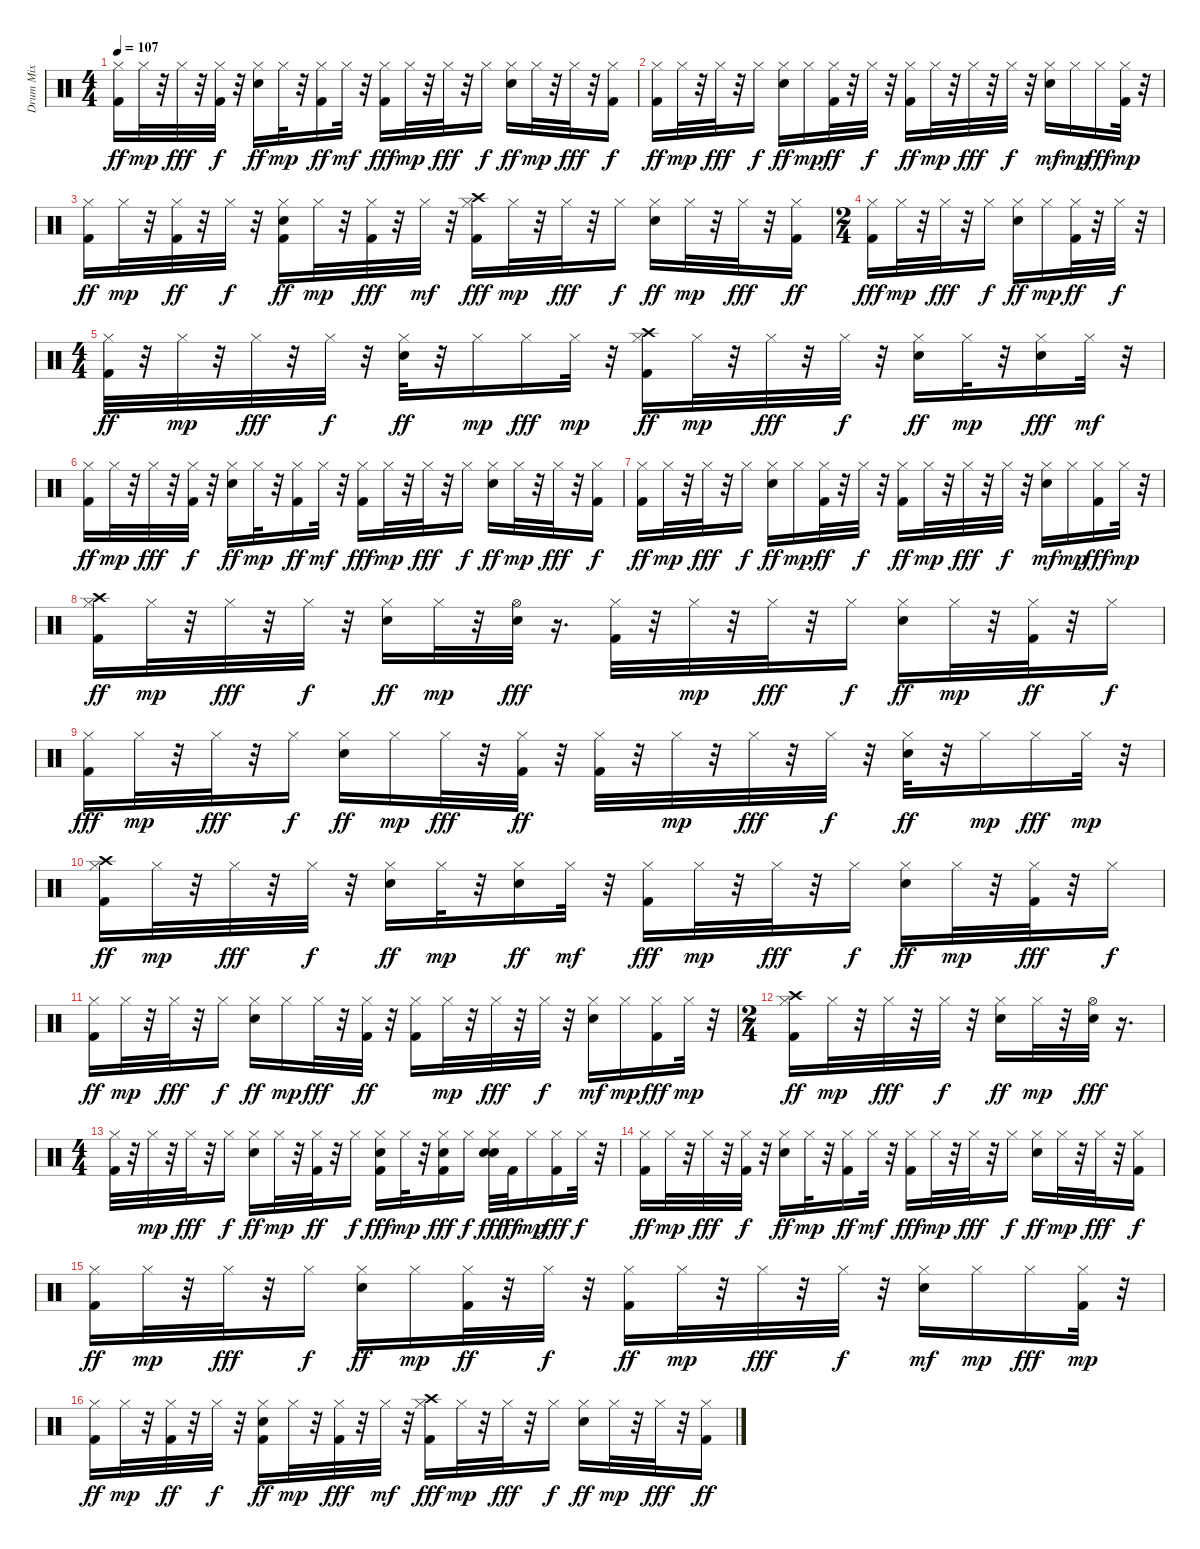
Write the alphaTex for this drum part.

\track ("Drum Mix" "Drum Mix") {instrument percussion}
\staff {score}
\articulation defaults
\ts (4 4)
\tempo 107
\clef neutral
\ks c
("Hi-Hat (closed)" "Kick (hit) 2").16{dy ff} "Hi-Hat (closed)".32{dy mp} r.32 "Hi-Hat (closed)".32{dy fff} r.32 ("Hi-Hat (closed)" "Kick (hit) 2").32{dy f} r.32 ("Hi-Hat (closed)" "Snare (hit) 2").16{dy ff} "Hi-Hat (closed)".32{dy mp} r.32 ("Hi-Hat (closed)" "Kick (hit) 2").16{dy ff} "Hi-Hat (closed)".32{dy mf} r.32 ("Hi-Hat (closed)" "Kick (hit) 2").16{dy fff} "Hi-Hat (closed)".32{dy mp} r.32 "Hi-Hat (closed)".32{dy fff} r.32 "Hi-Hat (closed)".16{dy f} ("Hi-Hat (closed)" "Snare (hit) 2").16{dy ff} "Hi-Hat (closed)".32{dy mp} r.32 "Hi-Hat (closed)".32{dy fff} r.32 ("Hi-Hat (closed)" "Kick (hit) 2").16{dy f} |
("Hi-Hat (closed)" "Kick (hit) 2").16{dy ff} "Hi-Hat (closed)".32{dy mp} r.32 "Hi-Hat (closed)".32{dy fff} r.32 "Hi-Hat (closed)".16{dy f} ("Hi-Hat (closed)" "Snare (hit) 2").16{dy ff} "Hi-Hat (closed)".16{dy mp} ("Hi-Hat (closed)" "Kick (hit) 2").32{dy ff} r.32 "Hi-Hat (closed)".32{dy f} r.32 ("Hi-Hat (closed)" "Kick (hit) 2").16{dy ff} "Hi-Hat (closed)".32{dy mp} r.32 "Hi-Hat (closed)".32{dy fff} r.32 "Hi-Hat (closed)".32{dy f} r.32 ("Hi-Hat (closed)" "Snare (hit) 2").16{dy mf} "Hi-Hat (closed)".16{dy mp} "Hi-Hat (closed)".16{dy fff} ("Hi-Hat (closed)" "Kick (hit) 2").32{dy mp} r.32 |
("Hi-Hat (closed)" "Kick (hit) 2").16{dy ff} "Hi-Hat (closed)".32{dy mp} r.32 ("Hi-Hat (closed)" "Kick (hit) 2").32{dy ff} r.32 "Hi-Hat (closed)".32{dy f} r.32 ("Hi-Hat (closed)" "Snare (hit) 2" "Kick (hit) 2").16{dy ff} "Hi-Hat (closed)".32{dy mp} r.32 ("Hi-Hat (closed)" "Kick (hit) 2").32{dy fff} r.32 "Hi-Hat (closed)".32{dy mf} r.32 ("Hi-Hat (closed)" "Kick (hit) 2" "Crash high (hit)").16{dy fff} "Hi-Hat (closed)".32{dy mp} r.32 "Hi-Hat (closed)".32{dy fff} r.32 "Hi-Hat (closed)".16{dy f} ("Hi-Hat (closed)" "Snare (hit) 2").16{dy ff} "Hi-Hat (closed)".32{dy mp} r.32 "Hi-Hat (closed)".32{dy fff} r.32 ("Hi-Hat (closed)" "Kick (hit) 2").16{dy ff} |
\ts (2 4)
("Hi-Hat (closed)" "Kick (hit) 2").16{dy fff} "Hi-Hat (closed)".32{dy mp} r.32 "Hi-Hat (closed)".32{dy fff} r.32 "Hi-Hat (closed)".16{dy f} ("Hi-Hat (closed)" "Snare (hit) 2").16{dy ff} "Hi-Hat (closed)".16{dy mp} ("Hi-Hat (closed)" "Kick (hit) 2").32{dy ff} r.32 "Hi-Hat (closed)".32{dy f} r.32 |
\ts (4 4)
("Hi-Hat (closed)" "Kick (hit) 2").32{dy ff} r.32 "Hi-Hat (closed)".32{dy mp} r.32 "Hi-Hat (closed)".32{dy fff} r.32 "Hi-Hat (closed)".32{dy f} r.32 ("Hi-Hat (closed)" "Snare (hit) 2").32{dy ff} r.32 "Hi-Hat (closed)".16{dy mp} "Hi-Hat (closed)".16{dy fff} "Hi-Hat (closed)".32{dy mp} r.32 ("Hi-Hat (closed)" "Crash high (hit)" "Kick (hit) 2").16{dy ff} "Hi-Hat (closed)".32{dy mp} r.32 "Hi-Hat (closed)".32{dy fff} r.32 "Hi-Hat (closed)".32{dy f} r.32 ("Hi-Hat (closed)" "Snare (hit) 2").16{dy ff} "Hi-Hat (closed)".32{dy mp} r.32 ("Hi-Hat (closed)" "Snare (hit) 2").16{dy fff} "Hi-Hat (closed)".32{dy mf} r.32 |
("Hi-Hat (closed)" "Kick (hit) 2").16{dy ff} "Hi-Hat (closed)".32{dy mp} r.32 "Hi-Hat (closed)".32{dy fff} r.32 ("Hi-Hat (closed)" "Kick (hit) 2").32{dy f} r.32 ("Hi-Hat (closed)" "Snare (hit) 2").16{dy ff} "Hi-Hat (closed)".32{dy mp} r.32 ("Hi-Hat (closed)" "Kick (hit) 2").16{dy ff} "Hi-Hat (closed)".32{dy mf} r.32 ("Hi-Hat (closed)" "Kick (hit) 2").16{dy fff} "Hi-Hat (closed)".32{dy mp} r.32 "Hi-Hat (closed)".32{dy fff} r.32 "Hi-Hat (closed)".16{dy f} ("Hi-Hat (closed)" "Snare (hit) 2").16{dy ff} "Hi-Hat (closed)".32{dy mp} r.32 "Hi-Hat (closed)".32{dy fff} r.32 ("Hi-Hat (closed)" "Kick (hit) 2").16{dy f} |
("Hi-Hat (closed)" "Kick (hit) 2").16{dy ff} "Hi-Hat (closed)".32{dy mp} r.32 "Hi-Hat (closed)".32{dy fff} r.32 "Hi-Hat (closed)".16{dy f} ("Hi-Hat (closed)" "Snare (hit) 2").16{dy ff} "Hi-Hat (closed)".16{dy mp} ("Hi-Hat (closed)" "Kick (hit) 2").32{dy ff} r.32 "Hi-Hat (closed)".32{dy f} r.32 ("Hi-Hat (closed)" "Kick (hit) 2").16{dy ff} "Hi-Hat (closed)".32{dy mp} r.32 "Hi-Hat (closed)".32{dy fff} r.32 "Hi-Hat (closed)".32{dy f} r.32 ("Hi-Hat (closed)" "Snare (hit) 2").16{dy mf} "Hi-Hat (closed)".16{dy mp} ("Hi-Hat (closed)" "Kick (hit) 2").16{dy fff} "Hi-Hat (closed)".32{dy mp} r.32 |
("Hi-Hat (closed)" "Crash high (hit)" "Kick (hit) 2").16{dy ff} "Hi-Hat (closed)".32{dy mp} r.32 "Hi-Hat (closed)".32{dy fff} r.32 "Hi-Hat (closed)".32{dy f} r.32 ("Hi-Hat (closed)" "Snare (hit) 2").16{dy ff} "Hi-Hat (closed)".32{dy mp} r.32 ("Hi-Hat (open)" "Snare (hit) 2").32{dy fff} r.16{d} ("Hi-Hat (closed)" "Kick (hit) 2").32 r.32 "Hi-Hat (closed)".32{dy mp} r.32 "Hi-Hat (closed)".32{dy fff} r.32 "Hi-Hat (closed)".16{dy f} ("Hi-Hat (closed)" "Snare (hit) 2").16{dy ff} "Hi-Hat (closed)".32{dy mp} r.32 ("Hi-Hat (closed)" "Kick (hit) 2").32{dy ff} r.32 "Hi-Hat (closed)".16{dy f} |
("Hi-Hat (closed)" "Kick (hit) 2").16{dy fff} "Hi-Hat (closed)".32{dy mp} r.32 "Hi-Hat (closed)".32{dy fff} r.32 "Hi-Hat (closed)".16{dy f} ("Hi-Hat (closed)" "Snare (hit) 2").16{dy ff} "Hi-Hat (closed)".16{dy mp} "Hi-Hat (closed)".32{dy fff} r.32 ("Hi-Hat (closed)" "Kick (hit) 2").32{dy ff} r.32 ("Hi-Hat (closed)" "Kick (hit) 2").32 r.32 "Hi-Hat (closed)".32{dy mp} r.32 "Hi-Hat (closed)".32{dy fff} r.32 "Hi-Hat (closed)".32{dy f} r.32 ("Hi-Hat (closed)" "Snare (hit) 2").32{dy ff} r.32 "Hi-Hat (closed)".16{dy mp} "Hi-Hat (closed)".16{dy fff} "Hi-Hat (closed)".32{dy mp} r.32 |
("Hi-Hat (closed)" "Crash high (hit)" "Kick (hit) 2").16{dy ff} "Hi-Hat (closed)".32{dy mp} r.32 "Hi-Hat (closed)".32{dy fff} r.32 "Hi-Hat (closed)".32{dy f} r.32 ("Hi-Hat (closed)" "Snare (hit) 2").16{dy ff} "Hi-Hat (closed)".32{dy mp} r.32 ("Hi-Hat (closed)" "Snare (hit) 2").16{dy ff} "Hi-Hat (closed)".32{dy mf} r.32 ("Hi-Hat (closed)" "Kick (hit) 2").16{dy fff} "Hi-Hat (closed)".32{dy mp} r.32 "Hi-Hat (closed)".32{dy fff} r.32 "Hi-Hat (closed)".16{dy f} ("Hi-Hat (closed)" "Snare (hit) 2").16{dy ff} "Hi-Hat (closed)".32{dy mp} r.32 ("Hi-Hat (closed)" "Kick (hit) 2").32{dy fff} r.32 "Hi-Hat (closed)".16{dy f} |
("Hi-Hat (closed)" "Kick (hit) 2").16{dy ff} "Hi-Hat (closed)".32{dy mp} r.32 "Hi-Hat (closed)".32{dy fff} r.32 "Hi-Hat (closed)".16{dy f} ("Hi-Hat (closed)" "Snare (hit) 2").16{dy ff} "Hi-Hat (closed)".16{dy mp} "Hi-Hat (closed)".32{dy fff} r.32 ("Hi-Hat (closed)" "Kick (hit) 2").32{dy ff} r.32 ("Hi-Hat (closed)" "Kick (hit) 2").16 "Hi-Hat (closed)".32{dy mp} r.32 "Hi-Hat (closed)".32{dy fff} r.32 "Hi-Hat (closed)".32{dy f} r.32 ("Hi-Hat (closed)" "Snare (hit) 2").16{dy mf} "Hi-Hat (closed)".16{dy mp} ("Hi-Hat (closed)" "Kick (hit) 2").16{dy fff} "Hi-Hat (closed)".32{dy mp} r.32 |
\ts (2 4)
("Hi-Hat (closed)" "Crash high (hit)" "Kick (hit) 2").16{dy ff} "Hi-Hat (closed)".32{dy mp} r.32 "Hi-Hat (closed)".32{dy fff} r.32 "Hi-Hat (closed)".32{dy f} r.32 ("Hi-Hat (closed)" "Snare (hit) 2").16{dy ff} "Hi-Hat (closed)".32{dy mp} r.32 ("Hi-Hat (open)" "Snare (hit) 2").32{dy fff} r.16{d} |
\ts (4 4)
("Hi-Hat (closed)" "Kick (hit) 2").32 r.32 "Hi-Hat (closed)".32{dy mp} r.32 "Hi-Hat (closed)".32{dy fff} r.32 "Hi-Hat (closed)".16{dy f} ("Hi-Hat (closed)" "Snare (hit) 2").16{dy ff} "Hi-Hat (closed)".32{dy mp} r.32 ("Hi-Hat (closed)" "Kick (hit) 2").32{dy ff} r.32 "Hi-Hat (closed)".16{dy f} ("Hi-Hat (closed)" "Snare (hit) 2" "Kick (hit) 2").16{dy fff} "Hi-Hat (closed)".32{dy mp} r.32 ("Hi-Hat (closed)" "Snare (hit) 2" "Kick (hit) 2").16{dy fff} "Hi-Hat (closed)".16{dy f} ("Snare (hit) 2" "Hi-Hat (closed)" "Snare (hit) 2").32{dy fff} "Kick (hit) 2".32{dy ff} "Hi-Hat (closed)".16{dy mp} ("Hi-Hat (closed)" "Kick (hit) 2").16{dy fff} "Hi-Hat (closed)".32{dy f} r.32 |
("Hi-Hat (closed)" "Kick (hit) 2").16{dy ff} "Hi-Hat (closed)".32{dy mp} r.32 "Hi-Hat (closed)".32{dy fff} r.32 ("Hi-Hat (closed)" "Kick (hit) 2").32{dy f} r.32 ("Hi-Hat (closed)" "Snare (hit) 2").16{dy ff} "Hi-Hat (closed)".32{dy mp} r.32 ("Hi-Hat (closed)" "Kick (hit) 2").16{dy ff} "Hi-Hat (closed)".32{dy mf} r.32 ("Hi-Hat (closed)" "Kick (hit) 2").16{dy fff} "Hi-Hat (closed)".32{dy mp} r.32 "Hi-Hat (closed)".32{dy fff} r.32 "Hi-Hat (closed)".16{dy f} ("Hi-Hat (closed)" "Snare (hit) 2").16{dy ff} "Hi-Hat (closed)".32{dy mp} r.32 "Hi-Hat (closed)".32{dy fff} r.32 ("Hi-Hat (closed)" "Kick (hit) 2").16{dy f} |
("Hi-Hat (closed)" "Kick (hit) 2").16{dy ff} "Hi-Hat (closed)".32{dy mp} r.32 "Hi-Hat (closed)".32{dy fff} r.32 "Hi-Hat (closed)".16{dy f} ("Hi-Hat (closed)" "Snare (hit) 2").16{dy ff} "Hi-Hat (closed)".16{dy mp} ("Hi-Hat (closed)" "Kick (hit) 2").32{dy ff} r.32 "Hi-Hat (closed)".32{dy f} r.32 ("Hi-Hat (closed)" "Kick (hit) 2").16{dy ff} "Hi-Hat (closed)".32{dy mp} r.32 "Hi-Hat (closed)".32{dy fff} r.32 "Hi-Hat (closed)".32{dy f} r.32 ("Hi-Hat (closed)" "Snare (hit) 2").16{dy mf} "Hi-Hat (closed)".16{dy mp} "Hi-Hat (closed)".16{dy fff} ("Hi-Hat (closed)" "Kick (hit) 2").32{dy mp} r.32 |
("Hi-Hat (closed)" "Kick (hit) 2").16{dy ff} "Hi-Hat (closed)".32{dy mp} r.32 ("Hi-Hat (closed)" "Kick (hit) 2").32{dy ff} r.32 "Hi-Hat (closed)".32{dy f} r.32 ("Hi-Hat (closed)" "Snare (hit) 2" "Kick (hit) 2").16{dy ff} "Hi-Hat (closed)".32{dy mp} r.32 ("Hi-Hat (closed)" "Kick (hit) 2").32{dy fff} r.32 "Hi-Hat (closed)".32{dy mf} r.32 ("Hi-Hat (closed)" "Kick (hit) 2" "Crash high (hit)").16{dy fff} "Hi-Hat (closed)".32{dy mp} r.32 "Hi-Hat (closed)".32{dy fff} r.32 "Hi-Hat (closed)".16{dy f} ("Hi-Hat (closed)" "Snare (hit) 2").16{dy ff} "Hi-Hat (closed)".32{dy mp} r.32 "Hi-Hat (closed)".32{dy fff} r.32 ("Hi-Hat (closed)" "Kick (hit) 2").16{dy ff}
